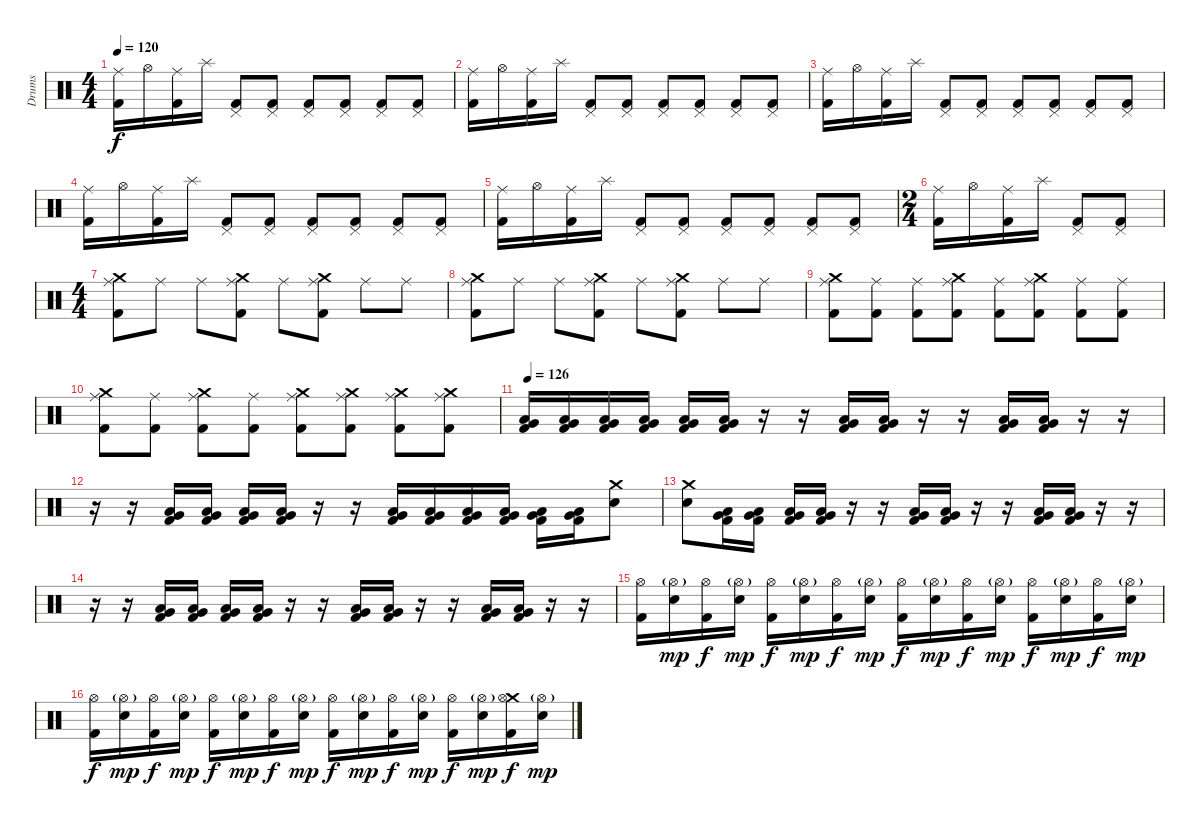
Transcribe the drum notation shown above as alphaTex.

\track ("Drums" "Drums") {instrument percussion}
\staff {score}
\articulation defaults
\ts (4 4)
\tempo 120
\clef neutral
\ks c
("Ride (middle)" "Kick (hit) 2").16{dy f} "Hi-Hat (open)".16 ("Ride (middle)" "Kick (hit) 2").16 "Splash (hit)".16 ("Pedal Hi-Hat (hit)" "Kick (hit) 2").8 ("Pedal Hi-Hat (hit)" "Kick (hit) 2").8 ("Pedal Hi-Hat (hit)" "Kick (hit) 2").8 ("Pedal Hi-Hat (hit)" "Kick (hit) 2").8 ("Pedal Hi-Hat (hit)" "Kick (hit) 2").8 ("Pedal Hi-Hat (hit)" "Kick (hit) 2").8 |
("Ride (middle)" "Kick (hit) 2").16 "Hi-Hat (open)".16 ("Ride (middle)" "Kick (hit) 2").16 "Splash (hit)".16 ("Pedal Hi-Hat (hit)" "Kick (hit) 2").8 ("Pedal Hi-Hat (hit)" "Kick (hit) 2").8 ("Pedal Hi-Hat (hit)" "Kick (hit) 2").8 ("Pedal Hi-Hat (hit)" "Kick (hit) 2").8 ("Pedal Hi-Hat (hit)" "Kick (hit) 2").8 ("Pedal Hi-Hat (hit)" "Kick (hit) 2").8 |
("Ride (middle)" "Kick (hit) 2").16 "Hi-Hat (open)".16 ("Ride (middle)" "Kick (hit) 2").16 "Splash (hit)".16 ("Pedal Hi-Hat (hit)" "Kick (hit) 2").8 ("Pedal Hi-Hat (hit)" "Kick (hit) 2").8 ("Pedal Hi-Hat (hit)" "Kick (hit) 2").8 ("Pedal Hi-Hat (hit)" "Kick (hit) 2").8 ("Pedal Hi-Hat (hit)" "Kick (hit) 2").8 ("Pedal Hi-Hat (hit)" "Kick (hit) 2").8 |
("Ride (middle)" "Kick (hit) 2").16 "Hi-Hat (open)".16 ("Ride (middle)" "Kick (hit) 2").16 "Splash (hit)".16 ("Pedal Hi-Hat (hit)" "Kick (hit) 2").8 ("Pedal Hi-Hat (hit)" "Kick (hit) 2").8 ("Pedal Hi-Hat (hit)" "Kick (hit) 2").8 ("Pedal Hi-Hat (hit)" "Kick (hit) 2").8 ("Pedal Hi-Hat (hit)" "Kick (hit) 2").8 ("Pedal Hi-Hat (hit)" "Kick (hit) 2").8 |
("Ride (middle)" "Kick (hit) 2").16 "Hi-Hat (open)".16 ("Ride (middle)" "Kick (hit) 2").16 "Splash (hit)".16 ("Pedal Hi-Hat (hit)" "Kick (hit) 2").8 ("Pedal Hi-Hat (hit)" "Kick (hit) 2").8 ("Pedal Hi-Hat (hit)" "Kick (hit) 2").8 ("Pedal Hi-Hat (hit)" "Kick (hit) 2").8 ("Pedal Hi-Hat (hit)" "Kick (hit) 2").8 ("Pedal Hi-Hat (hit)" "Kick (hit) 2").8 |
\ts (2 4)
("Ride (middle)" "Kick (hit) 2").16 "Hi-Hat (open)".16 ("Ride (middle)" "Kick (hit) 2").16 "Splash (hit)".16 ("Pedal Hi-Hat (hit)" "Kick (hit) 2").8 ("Pedal Hi-Hat (hit)" "Kick (hit) 2").8 |
\ts (4 4)
("Crash medium (hit)" "Ride (middle)" "Kick (hit) 2").8 "Ride (middle)".8 "Ride (middle)".8 ("Crash medium (hit)" "Ride (middle)" "Kick (hit) 2").8 "Ride (middle)".8 ("Crash medium (hit)" "Ride (middle)" "Kick (hit) 2").8 "Ride (middle)".8 "Ride (middle)".8 |
("Crash medium (hit)" "Ride (middle)" "Kick (hit) 2").8 "Ride (middle)".8 "Ride (middle)".8 ("Crash medium (hit)" "Ride (middle)" "Kick (hit) 2").8 "Ride (middle)".8 ("Crash medium (hit)" "Ride (middle)" "Kick (hit) 2").8 "Ride (middle)".8 "Ride (middle)".8 |
("Crash medium (hit)" "Ride (middle)" "Kick (hit) 2").8 ("Ride (middle)" "Kick (hit) 2").8 ("Ride (middle)" "Kick (hit) 2").8 ("Crash medium (hit)" "Ride (middle)" "Kick (hit) 2").8 ("Ride (middle)" "Kick (hit) 2").8 ("Crash medium (hit)" "Ride (middle)" "Kick (hit) 2").8 ("Ride (middle)" "Kick (hit) 2").8 ("Ride (middle)" "Kick (hit) 2").8 |
("Crash medium (hit)" "Ride (middle)" "Kick (hit) 2").8 ("Ride (middle)" "Kick (hit) 2").8 ("Crash medium (hit)" "Ride (middle)" "Kick (hit) 2").8 ("Ride (middle)" "Kick (hit) 2").8 ("Crash medium (hit)" "Ride (middle)" "Kick (hit) 2").8 ("Crash medium (hit)" "Ride (middle)" "Kick (hit) 2").8 ("Crash medium (hit)" "Ride (middle)" "Kick (hit) 2").8 ("Crash medium (hit)" "Ride (middle)" "Kick (hit) 2").8 |
\tempo 126
("Very Low Tom (hit)" "Low Floor Tom (hit)" "Kick (hit) 2").16 ("Very Low Tom (hit)" "Low Floor Tom (hit)" "Kick (hit) 2").16 ("Very Low Tom (hit)" "Low Floor Tom (hit)" "Kick (hit) 2").16 ("Very Low Tom (hit)" "Low Floor Tom (hit)" "Kick (hit) 2").16 ("Very Low Tom (hit)" "Low Floor Tom (hit)" "Kick (hit) 2").16 ("Very Low Tom (hit)" "Low Floor Tom (hit)" "Kick (hit) 2").16 r.16 r.16 ("Very Low Tom (hit)" "Low Floor Tom (hit)" "Kick (hit) 2").16 ("Very Low Tom (hit)" "Low Floor Tom (hit)" "Kick (hit) 2").16 r.16 r.16 ("Very Low Tom (hit)" "Low Floor Tom (hit)" "Kick (hit) 2").16 ("Very Low Tom (hit)" "Low Floor Tom (hit)" "Kick (hit) 2").16 r.16 r.16 |
r.16 r.16 ("Very Low Tom (hit)" "Low Floor Tom (hit)" "Kick (hit) 2").16 ("Very Low Tom (hit)" "Low Floor Tom (hit)" "Kick (hit) 2").16 ("Very Low Tom (hit)" "Low Floor Tom (hit)" "Kick (hit) 2").16 ("Very Low Tom (hit)" "Low Floor Tom (hit)" "Kick (hit) 2").16 r.16 r.16 ("Very Low Tom (hit)" "Low Floor Tom (hit)" "Kick (hit) 2").16 ("Very Low Tom (hit)" "Low Floor Tom (hit)" "Kick (hit) 2").16 ("Very Low Tom (hit)" "Low Floor Tom (hit)" "Kick (hit) 2").16 ("Very Low Tom (hit)" "Low Floor Tom (hit)" "Kick (hit) 2").16 ("Very Low Tom (hit)" "Low Floor Tom (hit)" "Kick (hit) 2").16 ("Very Low Tom (hit)" "Low Floor Tom (hit)" "Kick (hit) 2").16 ("Crash medium (hit)" "Electric Snare (hit)").8 |
("Crash medium (hit)" "Electric Snare (hit)").8 ("Very Low Tom (hit)" "Low Floor Tom (hit)" "Kick (hit) 2").16 ("Very Low Tom (hit)" "Low Floor Tom (hit)" "Kick (hit) 2").16 ("Very Low Tom (hit)" "Low Floor Tom (hit)" "Kick (hit) 2").16 ("Very Low Tom (hit)" "Low Floor Tom (hit)" "Kick (hit) 2").16 r.16 r.16 ("Very Low Tom (hit)" "Low Floor Tom (hit)" "Kick (hit) 2").16 ("Very Low Tom (hit)" "Low Floor Tom (hit)" "Kick (hit) 2").16 r.16 r.16 ("Very Low Tom (hit)" "Low Floor Tom (hit)" "Kick (hit) 2").16 ("Very Low Tom (hit)" "Low Floor Tom (hit)" "Kick (hit) 2").16 r.16 r.16 |
r.16 r.16 ("Very Low Tom (hit)" "Low Floor Tom (hit)" "Kick (hit) 2").16 ("Very Low Tom (hit)" "Low Floor Tom (hit)" "Kick (hit) 2").16 ("Very Low Tom (hit)" "Low Floor Tom (hit)" "Kick (hit) 2").16 ("Very Low Tom (hit)" "Low Floor Tom (hit)" "Kick (hit) 2").16 r.16 r.16 ("Very Low Tom (hit)" "Low Floor Tom (hit)" "Kick (hit) 2").16 ("Very Low Tom (hit)" "Low Floor Tom (hit)" "Kick (hit) 2").16 r.16 r.16 ("Very Low Tom (hit)" "Low Floor Tom (hit)" "Kick (hit) 2").16 ("Very Low Tom (hit)" "Low Floor Tom (hit)" "Kick (hit) 2").16 r.16 r.16 |
("Hi-Hat (open)" "Kick (hit) 2").16 ("Hi-Hat (open)"{g} "Electric Snare (hit)").16{dy mp} ("Hi-Hat (open)" "Kick (hit) 2").16{dy f} ("Hi-Hat (open)"{g} "Electric Snare (hit)").16{dy mp} ("Hi-Hat (open)" "Kick (hit) 2").16{dy f} ("Hi-Hat (open)"{g} "Electric Snare (hit)").16{dy mp} ("Hi-Hat (open)" "Kick (hit) 2").16{dy f} ("Hi-Hat (open)"{g} "Electric Snare (hit)").16{dy mp} ("Hi-Hat (open)" "Kick (hit) 2").16{dy f} ("Hi-Hat (open)"{g} "Electric Snare (hit)").16{dy mp} ("Hi-Hat (open)" "Kick (hit) 2").16{dy f} ("Hi-Hat (open)"{g} "Electric Snare (hit)").16{dy mp} ("Hi-Hat (open)" "Kick (hit) 2").16{dy f} ("Hi-Hat (open)"{g} "Electric Snare (hit)").16{dy mp} ("Hi-Hat (open)" "Kick (hit) 2").16{dy f} ("Hi-Hat (open)"{g} "Electric Snare (hit)").16{dy mp} |
("Hi-Hat (open)" "Kick (hit) 2").16{dy f} ("Hi-Hat (open)"{g} "Electric Snare (hit)").16{dy mp} ("Hi-Hat (open)" "Kick (hit) 2").16{dy f} ("Hi-Hat (open)"{g} "Electric Snare (hit)").16{dy mp} ("Hi-Hat (open)" "Kick (hit) 2").16{dy f} ("Hi-Hat (open)"{g} "Electric Snare (hit)").16{dy mp} ("Hi-Hat (open)" "Kick (hit) 2").16{dy f} ("Hi-Hat (open)"{g} "Electric Snare (hit)").16{dy mp} ("Hi-Hat (open)" "Kick (hit) 2").16{dy f} ("Hi-Hat (open)"{g} "Electric Snare (hit)").16{dy mp} ("Hi-Hat (open)" "Kick (hit) 2").16{dy f} ("Hi-Hat (open)"{g} "Electric Snare (hit)").16{dy mp} ("Hi-Hat (open)" "Kick (hit) 2").16{dy f} ("Hi-Hat (open)"{g} "Electric Snare (hit)").16{dy mp} ("Crash medium (hit)" "Hi-Hat (open)" "Kick (hit) 2").16{dy f} ("Hi-Hat (open)"{g} "Electric Snare (hit)").16{dy mp}
